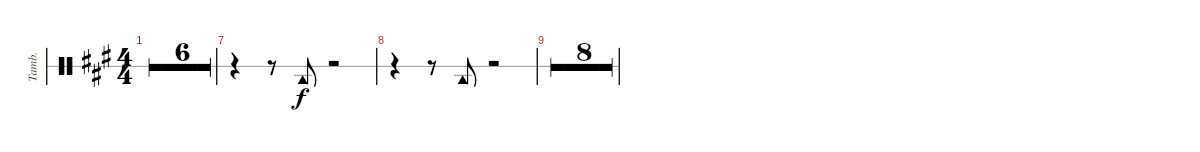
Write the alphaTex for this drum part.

\defaultSystemsLayout 4
\bracketExtendMode groupsimilarinstruments
\otherSystemsTrackNameOrientation horizontal
\track ("Tambourine" "Tamb.") {multiBarRest instrument percussion}
\staff {score 1}
\articulation defaults
\ts (4 4)
\tempo 128
\clef neutral
\ks a
r.1{dy f} |
r.1 |
r.1 |
r.1 |
r.1 |
r.1 |
r.4 r.8 "Tambourine (hit)"{acc forcenatural}.8 r.2 |
r.4 r.8 "Tambourine (hit)"{acc forcenatural}.8 r.2 |
r.1 |
r.1 |
r.1 |
r.1 |
r.1 |
r.1 |
r.1 |
r.1
